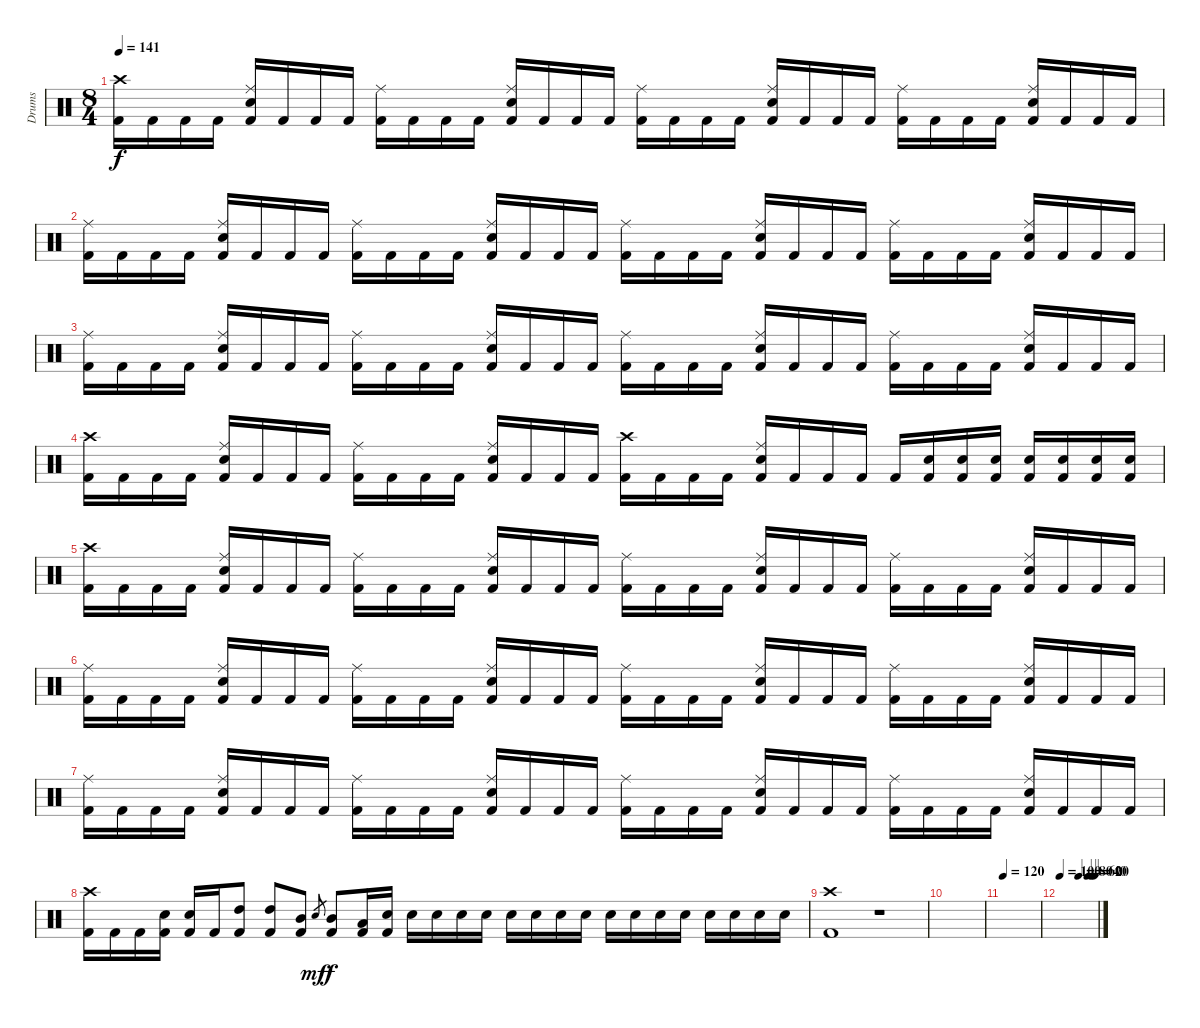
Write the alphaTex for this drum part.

\track ("Drums" "Drums") {instrument percussion}
\staff {score}
\articulation defaults
\ts (8 4)
\tempo 141
\clef neutral
\ks c
("Crash high (hit)" "Kick (hit) 2").16{dy f} "Kick (hit) 2".16 "Kick (hit) 2".16 "Kick (hit) 2".16 ("Ride (middle)" "Snare (hit) 2" "Kick (hit) 2").16 "Kick (hit) 2".16 "Kick (hit) 2".16 "Kick (hit) 2".16 ("Ride (middle)" "Kick (hit) 2").16 "Kick (hit) 2".16 "Kick (hit) 2".16 "Kick (hit) 2".16 ("Ride (middle)" "Snare (hit) 2" "Kick (hit) 2").16 "Kick (hit) 2".16 "Kick (hit) 2".16 "Kick (hit) 2".16 ("Ride (middle)" "Kick (hit) 2").16 "Kick (hit) 2".16 "Kick (hit) 2".16 "Kick (hit) 2".16 ("Ride (middle)" "Snare (hit) 2" "Kick (hit) 2").16 "Kick (hit) 2".16 "Kick (hit) 2".16 "Kick (hit) 2".16 ("Ride (middle)" "Kick (hit) 2").16 "Kick (hit) 2".16 "Kick (hit) 2".16 "Kick (hit) 2".16 ("Ride (middle)" "Snare (hit) 2" "Kick (hit) 2").16 "Kick (hit) 2".16 "Kick (hit) 2".16 "Kick (hit) 2".16 |
("Ride (middle)" "Kick (hit) 2").16 "Kick (hit) 2".16 "Kick (hit) 2".16 "Kick (hit) 2".16 ("Ride (middle)" "Snare (hit) 2" "Kick (hit) 2").16 "Kick (hit) 2".16 "Kick (hit) 2".16 "Kick (hit) 2".16 ("Ride (middle)" "Kick (hit) 2").16 "Kick (hit) 2".16 "Kick (hit) 2".16 "Kick (hit) 2".16 ("Ride (middle)" "Snare (hit) 2" "Kick (hit) 2").16 "Kick (hit) 2".16 "Kick (hit) 2".16 "Kick (hit) 2".16 ("Ride (middle)" "Kick (hit) 2").16 "Kick (hit) 2".16 "Kick (hit) 2".16 "Kick (hit) 2".16 ("Ride (middle)" "Snare (hit) 2" "Kick (hit) 2").16 "Kick (hit) 2".16 "Kick (hit) 2".16 "Kick (hit) 2".16 ("Ride (middle)" "Kick (hit) 2").16 "Kick (hit) 2".16 "Kick (hit) 2".16 "Kick (hit) 2".16 ("Ride (middle)" "Snare (hit) 2" "Kick (hit) 2").16 "Kick (hit) 2".16 "Kick (hit) 2".16 "Kick (hit) 2".16 |
("Ride (middle)" "Kick (hit) 2").16 "Kick (hit) 2".16 "Kick (hit) 2".16 "Kick (hit) 2".16 ("Ride (middle)" "Snare (hit) 2" "Kick (hit) 2").16 "Kick (hit) 2".16 "Kick (hit) 2".16 "Kick (hit) 2".16 ("Ride (middle)" "Kick (hit) 2").16 "Kick (hit) 2".16 "Kick (hit) 2".16 "Kick (hit) 2".16 ("Ride (middle)" "Snare (hit) 2" "Kick (hit) 2").16 "Kick (hit) 2".16 "Kick (hit) 2".16 "Kick (hit) 2".16 ("Ride (middle)" "Kick (hit) 2").16 "Kick (hit) 2".16 "Kick (hit) 2".16 "Kick (hit) 2".16 ("Ride (middle)" "Snare (hit) 2" "Kick (hit) 2").16 "Kick (hit) 2".16 "Kick (hit) 2".16 "Kick (hit) 2".16 ("Ride (middle)" "Kick (hit) 2").16 "Kick (hit) 2".16 "Kick (hit) 2".16 "Kick (hit) 2".16 ("Ride (middle)" "Snare (hit) 2" "Kick (hit) 2").16 "Kick (hit) 2".16 "Kick (hit) 2".16 "Kick (hit) 2".16 |
("Crash high (hit)" "Kick (hit) 2").16 "Kick (hit) 2".16 "Kick (hit) 2".16 "Kick (hit) 2".16 ("Ride (middle)" "Snare (hit) 2" "Kick (hit) 2").16 "Kick (hit) 2".16 "Kick (hit) 2".16 "Kick (hit) 2".16 ("Ride (middle)" "Kick (hit) 2").16 "Kick (hit) 2".16 "Kick (hit) 2".16 "Kick (hit) 2".16 ("Ride (middle)" "Snare (hit) 2" "Kick (hit) 2").16 "Kick (hit) 2".16 "Kick (hit) 2".16 "Kick (hit) 2".16 ("Crash high (hit)" "Kick (hit) 2").16 "Kick (hit) 2".16 "Kick (hit) 2".16 "Kick (hit) 2".16 ("Ride (middle)" "Snare (hit) 2" "Kick (hit) 2").16 "Kick (hit) 2".16 "Kick (hit) 2".16 "Kick (hit) 2".16 "Kick (hit) 2".16 ("Snare (hit) 2" "Kick (hit) 2").16 ("Snare (hit) 2" "Kick (hit) 2").16 ("Snare (hit) 2" "Kick (hit) 2").16 ("Snare (hit) 2" "Kick (hit) 2").16 ("Snare (hit) 2" "Kick (hit) 2").16 ("Snare (hit) 2" "Kick (hit) 2").16 ("Snare (hit) 2" "Kick (hit) 2").16 |
("Crash high (hit)" "Kick (hit) 2").16 "Kick (hit) 2".16 "Kick (hit) 2".16 "Kick (hit) 2".16 ("Ride (middle)" "Snare (hit) 2" "Kick (hit) 2").16 "Kick (hit) 2".16 "Kick (hit) 2".16 "Kick (hit) 2".16 ("Ride (middle)" "Kick (hit) 2").16 "Kick (hit) 2".16 "Kick (hit) 2".16 "Kick (hit) 2".16 ("Ride (middle)" "Snare (hit) 2" "Kick (hit) 2").16 "Kick (hit) 2".16 "Kick (hit) 2".16 "Kick (hit) 2".16 ("Ride (middle)" "Kick (hit) 2").16 "Kick (hit) 2".16 "Kick (hit) 2".16 "Kick (hit) 2".16 ("Ride (middle)" "Snare (hit) 2" "Kick (hit) 2").16 "Kick (hit) 2".16 "Kick (hit) 2".16 "Kick (hit) 2".16 ("Ride (middle)" "Kick (hit) 2").16 "Kick (hit) 2".16 "Kick (hit) 2".16 "Kick (hit) 2".16 ("Ride (middle)" "Snare (hit) 2" "Kick (hit) 2").16 "Kick (hit) 2".16 "Kick (hit) 2".16 "Kick (hit) 2".16 |
("Ride (middle)" "Kick (hit) 2").16 "Kick (hit) 2".16 "Kick (hit) 2".16 "Kick (hit) 2".16 ("Ride (middle)" "Snare (hit) 2" "Kick (hit) 2").16 "Kick (hit) 2".16 "Kick (hit) 2".16 "Kick (hit) 2".16 ("Ride (middle)" "Kick (hit) 2").16 "Kick (hit) 2".16 "Kick (hit) 2".16 "Kick (hit) 2".16 ("Ride (middle)" "Snare (hit) 2" "Kick (hit) 2").16 "Kick (hit) 2".16 "Kick (hit) 2".16 "Kick (hit) 2".16 ("Ride (middle)" "Kick (hit) 2").16 "Kick (hit) 2".16 "Kick (hit) 2".16 "Kick (hit) 2".16 ("Ride (middle)" "Snare (hit) 2" "Kick (hit) 2").16 "Kick (hit) 2".16 "Kick (hit) 2".16 "Kick (hit) 2".16 ("Ride (middle)" "Kick (hit) 2").16 "Kick (hit) 2".16 "Kick (hit) 2".16 "Kick (hit) 2".16 ("Ride (middle)" "Snare (hit) 2" "Kick (hit) 2").16 "Kick (hit) 2".16 "Kick (hit) 2".16 "Kick (hit) 2".16 |
("Ride (middle)" "Kick (hit) 2").16 "Kick (hit) 2".16 "Kick (hit) 2".16 "Kick (hit) 2".16 ("Ride (middle)" "Snare (hit) 2" "Kick (hit) 2").16 "Kick (hit) 2".16 "Kick (hit) 2".16 "Kick (hit) 2".16 ("Ride (middle)" "Kick (hit) 2").16 "Kick (hit) 2".16 "Kick (hit) 2".16 "Kick (hit) 2".16 ("Ride (middle)" "Snare (hit) 2" "Kick (hit) 2").16 "Kick (hit) 2".16 "Kick (hit) 2".16 "Kick (hit) 2".16 ("Ride (middle)" "Kick (hit) 2").16 "Kick (hit) 2".16 "Kick (hit) 2".16 "Kick (hit) 2".16 ("Ride (middle)" "Snare (hit) 2" "Kick (hit) 2").16 "Kick (hit) 2".16 "Kick (hit) 2".16 "Kick (hit) 2".16 ("Ride (middle)" "Kick (hit) 2").16 "Kick (hit) 2".16 "Kick (hit) 2".16 "Kick (hit) 2".16 ("Ride (middle)" "Snare (hit) 2" "Kick (hit) 2").16 "Kick (hit) 2".16 "Kick (hit) 2".16 "Kick (hit) 2".16 |
("Crash high (hit)" "Kick (hit) 2").16 "Kick (hit) 2".16 "Kick (hit) 2".16 ("Snare (hit) 2" "Kick (hit) 2").16 ("Snare (hit) 2" "Kick (hit) 2").16 "Kick (hit) 2".16 ("High Tom (hit)" "Kick (hit) 2").8 ("High Tom (hit)" "Kick (hit) 2").8 ("Mid Tom (hit)" "Kick (hit) 2").8 "Snare (hit) 2".8{gr dy mf} ("Mid Tom (hit)" "Kick (hit) 2").8{dy f} ("Low Tom (hit)" "Kick (hit) 2").16 ("Snare (hit) 2" "Kick (hit) 2").16 "Snare (hit) 2".16 "Snare (hit) 2".16 "Snare (hit) 2".16 "Snare (hit) 2".16 "Snare (hit) 2".16 "Snare (hit) 2".16 "Snare (hit) 2".16 "Snare (hit) 2".16 "Snare (hit) 2".16 "Snare (hit) 2".16 "Snare (hit) 2".16 "Snare (hit) 2".16 "Snare (hit) 2".16 "Snare (hit) 2".16 "Snare (hit) 2".16 "Snare (hit) 2".16 |
("Crash high (hit)" "Kick (hit) 2").1 r.1 |
|
\tempo 120
|
\tempo 100
\tempo (80 0.5)
\tempo (60 0.75)
\tempo (40 0.875)
\tempo (20 0.9375)
